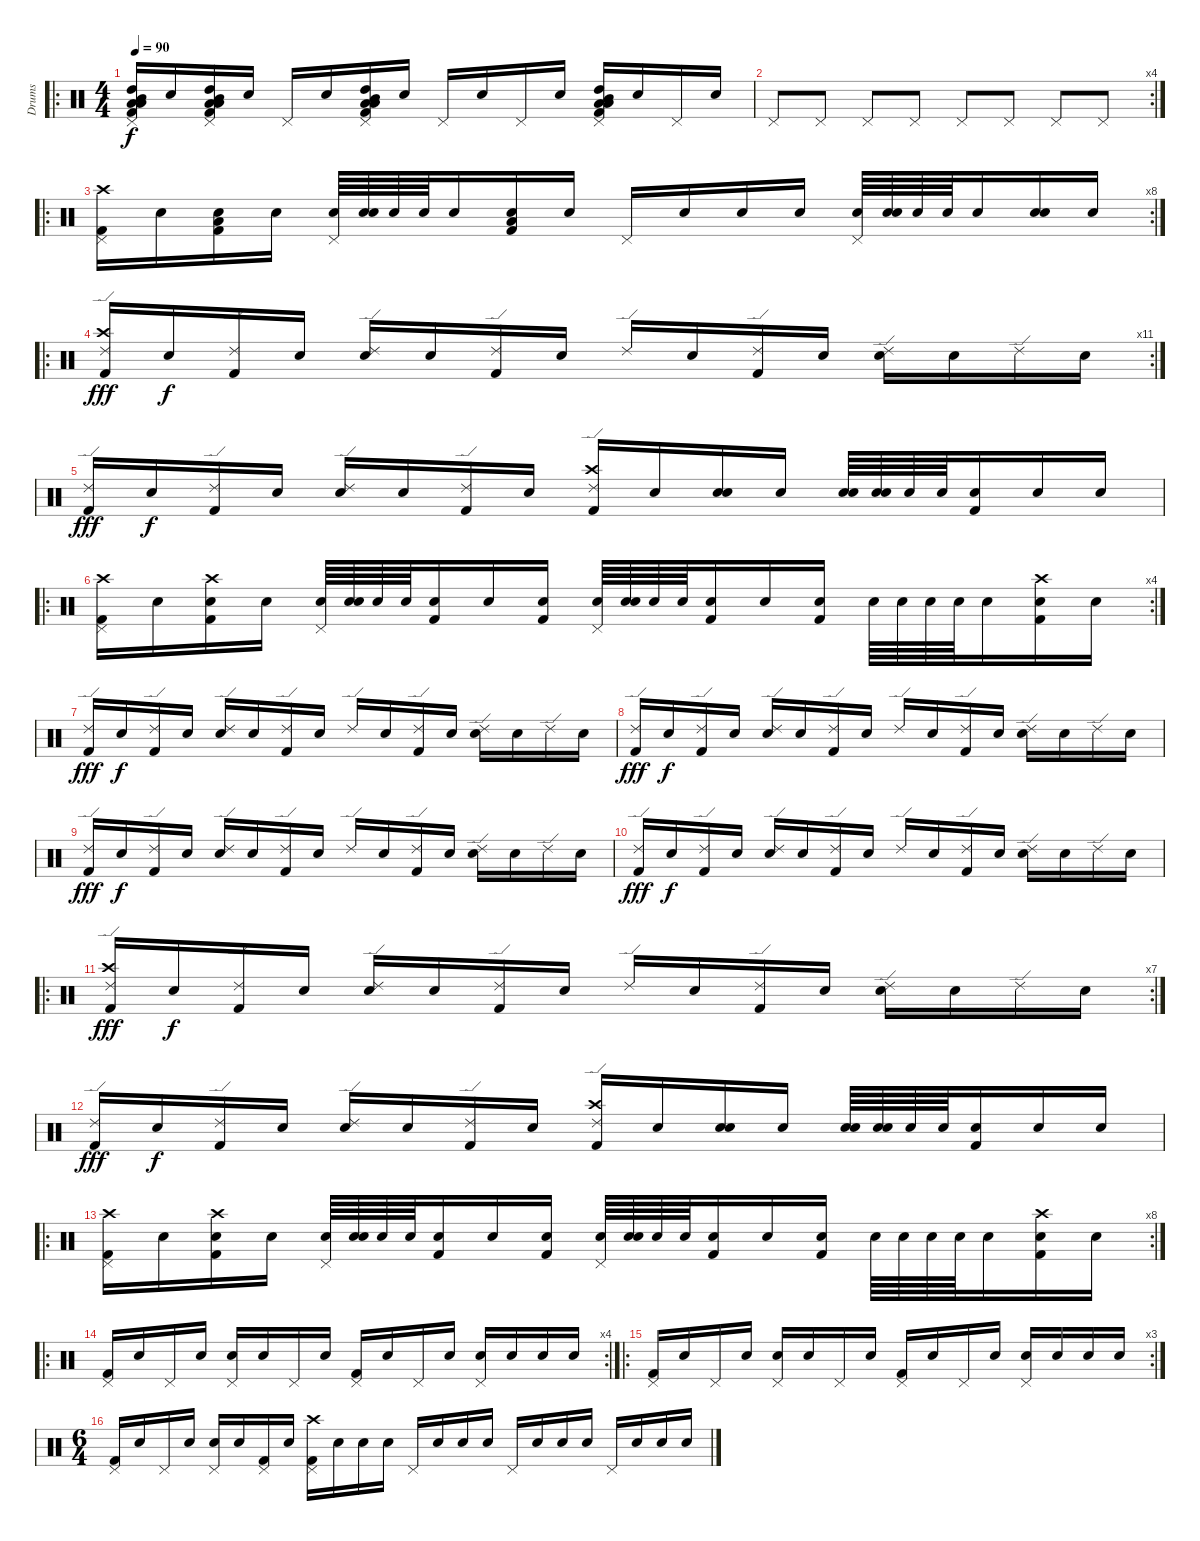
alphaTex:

\track ("Drums" "Drums") {instrument percussion}
\staff {score}
\articulation defaults
\ro
\ts (4 4)
\tempo 90
\clef neutral
\ks c
("High Tom (hit)" "Mid Tom (hit)" "Low Tom (hit)" "Low Tom (hit)" "Kick (hit) 2" "Pedal Hi-Hat (hit)").16{dy f} "Snare (hit)".16 ("High Tom (hit)" "Mid Tom (hit)" "Low Tom (hit)" "Low Tom (hit)" "Kick (hit) 2" "Pedal Hi-Hat (hit)").16 "Snare (hit)".16 "Pedal Hi-Hat (hit)".16 "Snare (hit)".16 ("High Tom (hit)" "Mid Tom (hit)" "Low Tom (hit)" "Low Tom (hit)" "Kick (hit) 2" "Pedal Hi-Hat (hit)").16 "Snare (hit)".16 "Pedal Hi-Hat (hit)".16 "Snare (hit)".16 "Pedal Hi-Hat (hit)".16 "Snare (hit)".16 ("High Tom (hit)" "Mid Tom (hit)" "Low Tom (hit)" "Low Tom (hit)" "Kick (hit) 2" "Pedal Hi-Hat (hit)").16 "Snare (hit)".16 "Pedal Hi-Hat (hit)".16 "Snare (hit)".16 |
\rc 4 "Pedal Hi-Hat (hit)".8 "Pedal Hi-Hat (hit)".8 "Pedal Hi-Hat (hit)".8 "Pedal Hi-Hat (hit)".8 "Pedal Hi-Hat (hit)".8 "Pedal Hi-Hat (hit)".8 "Pedal Hi-Hat (hit)".8 "Pedal Hi-Hat (hit)".8
|
\ro
\rc 8
("Crash high (hit)" "Kick (hit) 2" "Pedal Hi-Hat (hit)").16 "Snare (hit)".16 ("Low Tom (hit)" "Kick (hit) 2" "Snare (hit)").16 "Snare (hit)".16 ("Snare (hit) 2" "Pedal Hi-Hat (hit)").64 ("Snare (hit) 2" "Snare (hit)").64 "Snare (hit)".64 "Snare (hit)".64 "Snare (hit)".16 ("Kick (hit) 2" "Low Tom (hit)" "Snare (hit)").16 "Snare (hit)".16 "Pedal Hi-Hat (hit)".16 "Snare (hit)".16 "Snare (hit)".16 "Snare (hit)".16 ("Snare (hit) 2" "Pedal Hi-Hat (hit)").64 ("Snare (hit) 2" "Snare (hit)").64 "Snare (hit)".64 "Snare (hit)".64 "Snare (hit)".16 ("Snare (hit)" "Snare (hit)").16 "Snare (hit)".16 |
\ro
\rc 11
("Crash high (hit)" "Kick (hit) 2" "Ride (edge) 2").16{dy fff} "Snare (hit)".16{dy f} ("Kick (hit) 2" "Ride (edge) 2").16 "Snare (hit)".16 ("Snare (hit) 2" "Ride (edge) 2").16 "Snare (hit)".16 ("Kick (hit) 2" "Ride (edge) 2").16 "Snare (hit)".16 "Ride (edge) 2".16 "Snare (hit)".16 ("Kick (hit) 2" "Ride (edge) 2").16 "Snare (hit)".16 ("Snare (hit) 2" "Ride (edge) 2").16 "Snare (hit)".16 "Ride (edge) 2".16 "Snare (hit)".16 |
("Kick (hit) 2" "Ride (edge) 2").16{dy fff} "Snare (hit)".16{dy f} ("Kick (hit) 2" "Ride (edge) 2").16 "Snare (hit)".16 ("Snare (hit) 2" "Ride (edge) 2").16 "Snare (hit)".16 ("Kick (hit) 2" "Ride (edge) 2").16 "Snare (hit)".16 ("Crash high (hit)" "Kick (hit) 2" "Ride (edge) 2").16 "Snare (hit)".16 ("Snare (hit)" "Snare (hit)").16 "Snare (hit)".16 ("Snare (hit) 2" "Snare (hit)").64 ("Snare (hit) 2" "Snare (hit)").64 "Snare (hit)".64 "Snare (hit)".64 ("Kick (hit) 2" "Snare (hit)").16 "Snare (hit)".16 "Snare (hit)".16 |
\ro
\rc 4
("Crash high (hit)" "Kick (hit) 2" "Pedal Hi-Hat (hit)").16 "Snare (hit)".16 ("Crash high (hit)" "Kick (hit) 2" "Snare (hit)").16 "Snare (hit)".16 ("Snare (hit) 2" "Pedal Hi-Hat (hit)").64 ("Snare (hit) 2" "Snare (hit)").64 "Snare (hit)".64 "Snare (hit)".64 ("Kick (hit) 2" "Snare (hit)").16 "Snare (hit)".16 ("Kick (hit) 2" "Snare (hit)").16 ("Snare (hit) 2" "Pedal Hi-Hat (hit)").64 ("Snare (hit) 2" "Snare (hit)").64 "Snare (hit)".64 "Snare (hit)".64 ("Kick (hit) 2" "Snare (hit)").16 "Snare (hit)".16 ("Kick (hit) 2" "Snare (hit)").16 "Snare (hit) 2".64 "Snare (hit) 2".64 "Snare (hit)".64 "Snare (hit)".64 "Snare (hit)".16 ("Crash high (hit)" "Kick (hit) 2" "Snare (hit)").16 "Snare (hit)".16 |
("Kick (hit) 2" "Ride (edge) 2").16{dy fff} "Snare (hit)".16{dy f} ("Kick (hit) 2" "Ride (edge) 2").16 "Snare (hit)".16 ("Snare (hit) 2" "Ride (edge) 2").16 "Snare (hit)".16 ("Kick (hit) 2" "Ride (edge) 2").16 "Snare (hit)".16 "Ride (edge) 2".16 "Snare (hit)".16 ("Kick (hit) 2" "Ride (edge) 2").16 "Snare (hit)".16 ("Snare (hit) 2" "Ride (edge) 2").16 "Snare (hit)".16 "Ride (edge) 2".16 "Snare (hit)".16 |
("Kick (hit) 2" "Ride (edge) 2").16{dy fff} "Snare (hit)".16{dy f} ("Kick (hit) 2" "Ride (edge) 2").16 "Snare (hit)".16 ("Snare (hit) 2" "Ride (edge) 2").16 "Snare (hit)".16 ("Kick (hit) 2" "Ride (edge) 2").16 "Snare (hit)".16 "Ride (edge) 2".16 "Snare (hit)".16 ("Kick (hit) 2" "Ride (edge) 2").16 "Snare (hit)".16 ("Snare (hit) 2" "Ride (edge) 2").16 "Snare (hit)".16 "Ride (edge) 2".16 "Snare (hit)".16 |
("Kick (hit) 2" "Ride (edge) 2").16{dy fff} "Snare (hit)".16{dy f} ("Kick (hit) 2" "Ride (edge) 2").16 "Snare (hit)".16 ("Snare (hit) 2" "Ride (edge) 2").16 "Snare (hit)".16 ("Kick (hit) 2" "Ride (edge) 2").16 "Snare (hit)".16 "Ride (edge) 2".16 "Snare (hit)".16 ("Kick (hit) 2" "Ride (edge) 2").16 "Snare (hit)".16 ("Snare (hit) 2" "Ride (edge) 2").16 "Snare (hit)".16 "Ride (edge) 2".16 "Snare (hit)".16 |
("Kick (hit) 2" "Ride (edge) 2").16{dy fff} "Snare (hit)".16{dy f} ("Kick (hit) 2" "Ride (edge) 2").16 "Snare (hit)".16 ("Snare (hit) 2" "Ride (edge) 2").16 "Snare (hit)".16 ("Kick (hit) 2" "Ride (edge) 2").16 "Snare (hit)".16 "Ride (edge) 2".16 "Snare (hit)".16 ("Kick (hit) 2" "Ride (edge) 2").16 "Snare (hit)".16 ("Snare (hit) 2" "Ride (edge) 2").16 "Snare (hit)".16 "Ride (edge) 2".16 "Snare (hit)".16 |
\ro
\rc 7
("Crash high (hit)" "Kick (hit) 2" "Ride (edge) 2").16{dy fff} "Snare (hit)".16{dy f} ("Kick (hit) 2" "Ride (edge) 2").16 "Snare (hit)".16 ("Snare (hit) 2" "Ride (edge) 2").16 "Snare (hit)".16 ("Kick (hit) 2" "Ride (edge) 2").16 "Snare (hit)".16 "Ride (edge) 2".16 "Snare (hit)".16 ("Kick (hit) 2" "Ride (edge) 2").16 "Snare (hit)".16 ("Snare (hit) 2" "Ride (edge) 2").16 "Snare (hit)".16 "Ride (edge) 2".16 "Snare (hit)".16 |
("Kick (hit) 2" "Ride (edge) 2").16{dy fff} "Snare (hit)".16{dy f} ("Kick (hit) 2" "Ride (edge) 2").16 "Snare (hit)".16 ("Snare (hit) 2" "Ride (edge) 2").16 "Snare (hit)".16 ("Kick (hit) 2" "Ride (edge) 2").16 "Snare (hit)".16 ("Crash high (hit)" "Kick (hit) 2" "Ride (edge) 2").16 "Snare (hit)".16 ("Snare (hit)" "Snare (hit)").16 "Snare (hit)".16 ("Snare (hit) 2" "Snare (hit)").64 ("Snare (hit) 2" "Snare (hit)").64 "Snare (hit)".64 "Snare (hit)".64 ("Kick (hit) 2" "Snare (hit)").16 "Snare (hit)".16 "Snare (hit)".16 |
\ro
\rc 8
("Crash high (hit)" "Kick (hit) 2" "Pedal Hi-Hat (hit)").16 "Snare (hit)".16 ("Crash high (hit)" "Kick (hit) 2" "Snare (hit)").16 "Snare (hit)".16 ("Snare (hit) 2" "Pedal Hi-Hat (hit)").64 ("Snare (hit) 2" "Snare (hit)").64 "Snare (hit)".64 "Snare (hit)".64 ("Kick (hit) 2" "Snare (hit)").16 "Snare (hit)".16 ("Kick (hit) 2" "Snare (hit)").16 ("Snare (hit) 2" "Pedal Hi-Hat (hit)").64 ("Snare (hit) 2" "Snare (hit)").64 "Snare (hit)".64 "Snare (hit)".64 ("Kick (hit) 2" "Snare (hit)").16 "Snare (hit)".16 ("Kick (hit) 2" "Snare (hit)").16 "Snare (hit) 2".64 "Snare (hit) 2".64 "Snare (hit)".64 "Snare (hit)".64 "Snare (hit)".16 ("Crash high (hit)" "Kick (hit) 2" "Snare (hit)").16 "Snare (hit)".16 |
\ro
\rc 4
("Kick (hit) 2" "Pedal Hi-Hat (hit)").16 "Snare (hit)".16 "Pedal Hi-Hat (hit)".16 "Snare (hit)".16 ("Snare (hit) 2" "Pedal Hi-Hat (hit)").16 "Snare (hit)".16 "Pedal Hi-Hat (hit)".16 "Snare (hit)".16 ("Kick (hit) 2" "Pedal Hi-Hat (hit)").16 "Snare (hit)".16 "Pedal Hi-Hat (hit)".16 "Snare (hit)".16 ("Snare (hit) 2" "Pedal Hi-Hat (hit)").16 "Snare (hit)".16 "Snare (hit)".16 "Snare (hit)".16 |
\ro
\rc 3
("Kick (hit) 2" "Pedal Hi-Hat (hit)").16 "Snare (hit)".16 "Pedal Hi-Hat (hit)".16 "Snare (hit)".16 ("Snare (hit) 2" "Pedal Hi-Hat (hit)").16 "Snare (hit)".16 "Pedal Hi-Hat (hit)".16 "Snare (hit)".16 ("Kick (hit) 2" "Pedal Hi-Hat (hit)").16 "Snare (hit)".16 "Pedal Hi-Hat (hit)".16 "Snare (hit)".16 ("Snare (hit) 2" "Pedal Hi-Hat (hit)").16 "Snare (hit)".16 "Snare (hit)".16 "Snare (hit)".16 |
\ts (6 4)
("Kick (hit) 2" "Pedal Hi-Hat (hit)").16 "Snare (hit)".16 "Pedal Hi-Hat (hit)".16 "Snare (hit)".16 ("Snare (hit) 2" "Pedal Hi-Hat (hit)").16 "Snare (hit)".16 ("Kick (hit) 2" "Pedal Hi-Hat (hit)").16 "Snare (hit)".16 ("Kick (hit) 2" "Crash high (hit)" "Pedal Hi-Hat (hit)").16 "Snare (hit)".16 "Snare (hit)".16 "Snare (hit)".16 "Pedal Hi-Hat (hit)".16 "Snare (hit)".16 "Snare (hit)".16 "Snare (hit)".16 "Pedal Hi-Hat (hit)".16 "Snare (hit)".16 "Snare (hit)".16 "Snare (hit)".16 "Pedal Hi-Hat (hit)".16 "Snare (hit)".16 "Snare (hit)".16 "Snare (hit)".16
